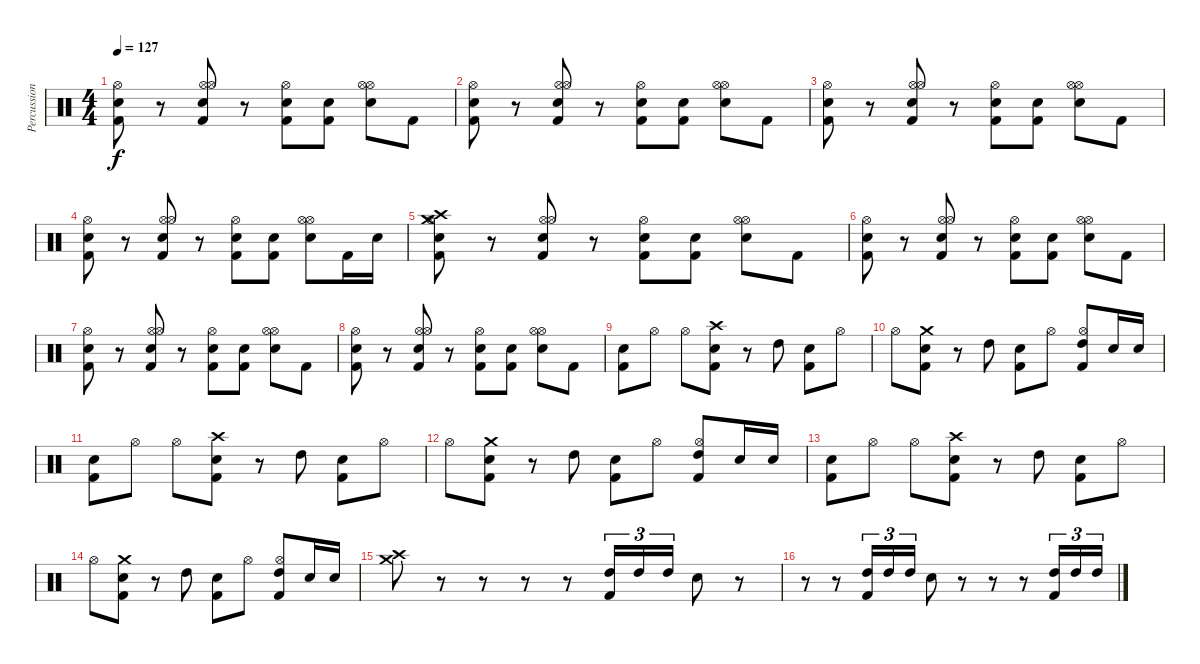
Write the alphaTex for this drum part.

\track ("Percussion" "Percussion") {instrument percussion}
\staff {score}
\articulation defaults
\ts (4 4)
\tempo 127
\clef neutral
\ks c
("Kick (hit) 2" "Snare (hit) 2" "Hi-Hat (open)").8{dy f} r.8 ("Hi-Hat (open)" "Kick (hit) 2" "Electric Snare (hit)" "Hi-Hat (open)").8 r.8 ("Kick (hit) 2" "Snare (hit) 2" "Hi-Hat (open)").8 ("Kick (hit) 2" "Snare (hit) 2").8 ("Hi-Hat (open)" "Electric Snare (hit)" "Hi-Hat (open)").8 "Kick (hit) 2".8 |
("Kick (hit) 2" "Snare (hit) 2" "Hi-Hat (open)").8 r.8 ("Hi-Hat (open)" "Kick (hit) 2" "Electric Snare (hit)" "Hi-Hat (open)").8 r.8 ("Kick (hit) 2" "Snare (hit) 2" "Hi-Hat (open)").8 ("Kick (hit) 2" "Snare (hit) 2").8 ("Hi-Hat (open)" "Electric Snare (hit)" "Hi-Hat (open)").8 "Kick (hit) 2".8 |
("Kick (hit) 2" "Snare (hit) 2" "Hi-Hat (open)").8 r.8 ("Hi-Hat (open)" "Kick (hit) 2" "Electric Snare (hit)" "Hi-Hat (open)").8 r.8 ("Kick (hit) 2" "Snare (hit) 2" "Hi-Hat (open)").8 ("Kick (hit) 2" "Snare (hit) 2").8 ("Hi-Hat (open)" "Electric Snare (hit)" "Hi-Hat (open)").8 "Kick (hit) 2".8 |
("Kick (hit) 2" "Snare (hit) 2" "Hi-Hat (open)").8 r.8 ("Hi-Hat (open)" "Kick (hit) 2" "Electric Snare (hit)" "Hi-Hat (open)").8 r.8 ("Kick (hit) 2" "Snare (hit) 2" "Hi-Hat (open)").8 ("Kick (hit) 2" "Snare (hit) 2").8 ("Hi-Hat (open)" "Electric Snare (hit)" "Hi-Hat (open)").8 "Kick (hit) 2".16 "Electric Snare (hit)".16 |
("Crash high (hit)" "Crash medium (hit)" "Kick (hit) 2" "Snare (hit) 2" "Hi-Hat (open)").8 r.8 ("Hi-Hat (open)" "Kick (hit) 2" "Electric Snare (hit)" "Hi-Hat (open)").8 r.8 ("Kick (hit) 2" "Snare (hit) 2" "Hi-Hat (open)").8 ("Kick (hit) 2" "Snare (hit) 2").8 ("Hi-Hat (open)" "Electric Snare (hit)" "Hi-Hat (open)").8 "Kick (hit) 2".8 |
("Kick (hit) 2" "Snare (hit) 2" "Hi-Hat (open)").8 r.8 ("Hi-Hat (open)" "Kick (hit) 2" "Electric Snare (hit)" "Hi-Hat (open)").8 r.8 ("Kick (hit) 2" "Snare (hit) 2" "Hi-Hat (open)").8 ("Kick (hit) 2" "Snare (hit) 2").8 ("Hi-Hat (open)" "Electric Snare (hit)" "Hi-Hat (open)").8 "Kick (hit) 2".8 |
("Kick (hit) 2" "Snare (hit) 2" "Hi-Hat (open)").8 r.8 ("Hi-Hat (open)" "Kick (hit) 2" "Electric Snare (hit)" "Hi-Hat (open)").8 r.8 ("Kick (hit) 2" "Snare (hit) 2" "Hi-Hat (open)").8 ("Kick (hit) 2" "Snare (hit) 2").8 ("Hi-Hat (open)" "Electric Snare (hit)" "Hi-Hat (open)").8 "Kick (hit) 2".8 |
("Kick (hit) 2" "Snare (hit) 2" "Hi-Hat (open)").8 r.8 ("Hi-Hat (open)" "Kick (hit) 2" "Electric Snare (hit)" "Hi-Hat (open)").8 r.8 ("Kick (hit) 2" "Snare (hit) 2" "Hi-Hat (open)").8 ("Kick (hit) 2" "Snare (hit) 2").8 ("Hi-Hat (open)" "Electric Snare (hit)" "Hi-Hat (open)").8 "Kick (hit) 2".8 |
("Kick (hit) 2" "Snare (hit) 2").8 "Hi-Hat (open)".8 "Hi-Hat (open)".8 ("Kick (hit) 2" "Electric Snare (hit)" "Crash high (hit)").8 r.8 "High Tom (hit)".8 ("Kick (hit) 2" "Snare (hit) 2").8 "Hi-Hat (open)".8 |
"Hi-Hat (open)".8 ("Kick (hit) 2" "Electric Snare (hit)" "Crash medium (hit)").8 r.8 "High Tom (hit)".8 ("Kick (hit) 2" "Snare (hit) 2").8 "Hi-Hat (open)".8 ("Kick (hit) 2" "High Tom (hit)" "Hi-Hat (open)").8 "Electric Snare (hit)".16 "Electric Snare (hit)".16 |
("Kick (hit) 2" "Snare (hit) 2").8 "Hi-Hat (open)".8 "Hi-Hat (open)".8 ("Kick (hit) 2" "Electric Snare (hit)" "Crash high (hit)").8 r.8 "High Tom (hit)".8 ("Kick (hit) 2" "Snare (hit) 2").8 "Hi-Hat (open)".8 |
"Hi-Hat (open)".8 ("Kick (hit) 2" "Electric Snare (hit)" "Crash medium (hit)").8 r.8 "High Tom (hit)".8 ("Kick (hit) 2" "Snare (hit) 2").8 "Hi-Hat (open)".8 ("Kick (hit) 2" "High Tom (hit)" "Hi-Hat (open)").8 "Electric Snare (hit)".16 "Electric Snare (hit)".16 |
("Kick (hit) 2" "Snare (hit) 2").8 "Hi-Hat (open)".8 "Hi-Hat (open)".8 ("Kick (hit) 2" "Electric Snare (hit)" "Crash high (hit)").8 r.8 "High Tom (hit)".8 ("Kick (hit) 2" "Snare (hit) 2").8 "Hi-Hat (open)".8 |
"Hi-Hat (open)".8 ("Kick (hit) 2" "Electric Snare (hit)" "Crash medium (hit)").8 r.8 "High Tom (hit)".8 ("Kick (hit) 2" "Snare (hit) 2").8 "Hi-Hat (open)".8 ("Kick (hit) 2" "High Tom (hit)" "Hi-Hat (open)").8 "Electric Snare (hit)".16 "Electric Snare (hit)".16 |
("Crash high (hit)" "Crash medium (hit)").8 r.8 r.8 r.8 r.8 ("Kick (hit) 2" "High Tom (hit)").16{tu (3 2)} "High Tom (hit)".16{tu (3 2)} "High Tom (hit)".16{tu (3 2)} "Snare (hit) 2".8 r.8 |
r.8 r.8 ("Kick (hit) 2" "High Tom (hit)").16{tu (3 2)} "High Tom (hit)".16{tu (3 2)} "High Tom (hit)".16{tu (3 2)} "Snare (hit) 2".8 r.8 r.8 r.8 ("Kick (hit) 2" "High Tom (hit)").16{tu (3 2)} "High Tom (hit)".16{tu (3 2)} "High Tom (hit)".16{tu (3 2)}
